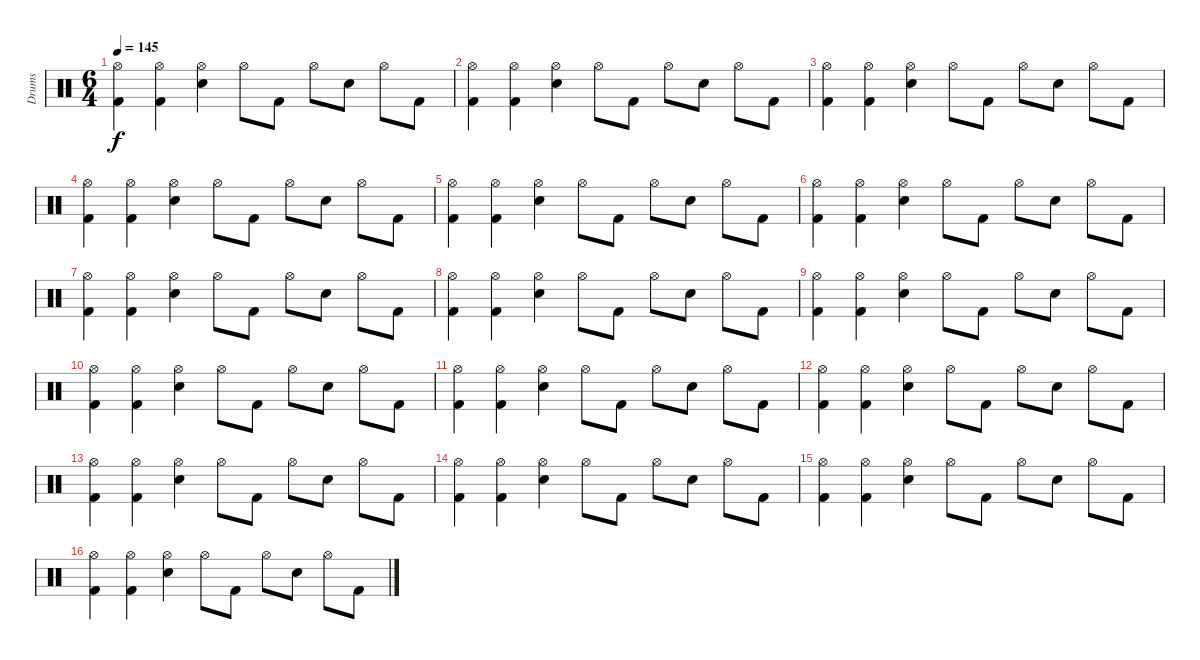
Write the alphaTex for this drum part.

\track ("Drums" "Drums") {instrument percussion}
\staff {score}
\articulation defaults
\ts (6 4)
\tempo 145
\clef neutral
\ks c
("Hi-Hat (open)" "Kick (hit) 2").4{dy f} ("Hi-Hat (open)" "Kick (hit) 2").4 ("Hi-Hat (open)" "Snare (hit) 2").4 "Hi-Hat (open)".8 "Kick (hit) 2".8 "Hi-Hat (open)".8 "Snare (hit) 2".8 "Hi-Hat (open)".8 "Kick (hit) 2".8 |
("Hi-Hat (open)" "Kick (hit) 2").4 ("Hi-Hat (open)" "Kick (hit) 2").4 ("Hi-Hat (open)" "Snare (hit) 2").4 "Hi-Hat (open)".8 "Kick (hit) 2".8 "Hi-Hat (open)".8 "Snare (hit) 2".8 "Hi-Hat (open)".8 "Kick (hit) 2".8 |
("Hi-Hat (open)" "Kick (hit) 2").4 ("Hi-Hat (open)" "Kick (hit) 2").4 ("Hi-Hat (open)" "Snare (hit) 2").4 "Hi-Hat (open)".8 "Kick (hit) 2".8 "Hi-Hat (open)".8 "Snare (hit) 2".8 "Hi-Hat (open)".8 "Kick (hit) 2".8 |
("Hi-Hat (open)" "Kick (hit) 2").4 ("Hi-Hat (open)" "Kick (hit) 2").4 ("Hi-Hat (open)" "Snare (hit) 2").4 "Hi-Hat (open)".8 "Kick (hit) 2".8 "Hi-Hat (open)".8 "Snare (hit) 2".8 "Hi-Hat (open)".8 "Kick (hit) 2".8 |
("Hi-Hat (open)" "Kick (hit) 2").4 ("Hi-Hat (open)" "Kick (hit) 2").4 ("Hi-Hat (open)" "Snare (hit) 2").4 "Hi-Hat (open)".8 "Kick (hit) 2".8 "Hi-Hat (open)".8 "Snare (hit) 2".8 "Hi-Hat (open)".8 "Kick (hit) 2".8 |
("Hi-Hat (open)" "Kick (hit) 2").4 ("Hi-Hat (open)" "Kick (hit) 2").4 ("Hi-Hat (open)" "Snare (hit) 2").4 "Hi-Hat (open)".8 "Kick (hit) 2".8 "Hi-Hat (open)".8 "Snare (hit) 2".8 "Hi-Hat (open)".8 "Kick (hit) 2".8 |
("Hi-Hat (open)" "Kick (hit) 2").4 ("Hi-Hat (open)" "Kick (hit) 2").4 ("Hi-Hat (open)" "Snare (hit) 2").4 "Hi-Hat (open)".8 "Kick (hit) 2".8 "Hi-Hat (open)".8 "Snare (hit) 2".8 "Hi-Hat (open)".8 "Kick (hit) 2".8 |
("Hi-Hat (open)" "Kick (hit) 2").4 ("Hi-Hat (open)" "Kick (hit) 2").4 ("Hi-Hat (open)" "Snare (hit) 2").4 "Hi-Hat (open)".8 "Kick (hit) 2".8 "Hi-Hat (open)".8 "Snare (hit) 2".8 "Hi-Hat (open)".8 "Kick (hit) 2".8 |
("Hi-Hat (open)" "Kick (hit) 2").4 ("Hi-Hat (open)" "Kick (hit) 2").4 ("Hi-Hat (open)" "Snare (hit) 2").4 "Hi-Hat (open)".8 "Kick (hit) 2".8 "Hi-Hat (open)".8 "Snare (hit) 2".8 "Hi-Hat (open)".8 "Kick (hit) 2".8 |
("Hi-Hat (open)" "Kick (hit) 2").4 ("Hi-Hat (open)" "Kick (hit) 2").4 ("Hi-Hat (open)" "Snare (hit) 2").4 "Hi-Hat (open)".8 "Kick (hit) 2".8 "Hi-Hat (open)".8 "Snare (hit) 2".8 "Hi-Hat (open)".8 "Kick (hit) 2".8 |
("Hi-Hat (open)" "Kick (hit) 2").4 ("Hi-Hat (open)" "Kick (hit) 2").4 ("Hi-Hat (open)" "Snare (hit) 2").4 "Hi-Hat (open)".8 "Kick (hit) 2".8 "Hi-Hat (open)".8 "Snare (hit) 2".8 "Hi-Hat (open)".8 "Kick (hit) 2".8 |
("Hi-Hat (open)" "Kick (hit) 2").4 ("Hi-Hat (open)" "Kick (hit) 2").4 ("Hi-Hat (open)" "Snare (hit) 2").4 "Hi-Hat (open)".8 "Kick (hit) 2".8 "Hi-Hat (open)".8 "Snare (hit) 2".8 "Hi-Hat (open)".8 "Kick (hit) 2".8 |
("Hi-Hat (open)" "Kick (hit) 2").4 ("Hi-Hat (open)" "Kick (hit) 2").4 ("Hi-Hat (open)" "Snare (hit) 2").4 "Hi-Hat (open)".8 "Kick (hit) 2".8 "Hi-Hat (open)".8 "Snare (hit) 2".8 "Hi-Hat (open)".8 "Kick (hit) 2".8 |
("Hi-Hat (open)" "Kick (hit) 2").4 ("Hi-Hat (open)" "Kick (hit) 2").4 ("Hi-Hat (open)" "Snare (hit) 2").4 "Hi-Hat (open)".8 "Kick (hit) 2".8 "Hi-Hat (open)".8 "Snare (hit) 2".8 "Hi-Hat (open)".8 "Kick (hit) 2".8 |
("Hi-Hat (open)" "Kick (hit) 2").4 ("Hi-Hat (open)" "Kick (hit) 2").4 ("Hi-Hat (open)" "Snare (hit) 2").4 "Hi-Hat (open)".8 "Kick (hit) 2".8 "Hi-Hat (open)".8 "Snare (hit) 2".8 "Hi-Hat (open)".8 "Kick (hit) 2".8 |
("Hi-Hat (open)" "Kick (hit) 2").4 ("Hi-Hat (open)" "Kick (hit) 2").4 ("Hi-Hat (open)" "Snare (hit) 2").4 "Hi-Hat (open)".8 "Kick (hit) 2".8 "Hi-Hat (open)".8 "Snare (hit) 2".8 "Hi-Hat (open)".8 "Kick (hit) 2".8
